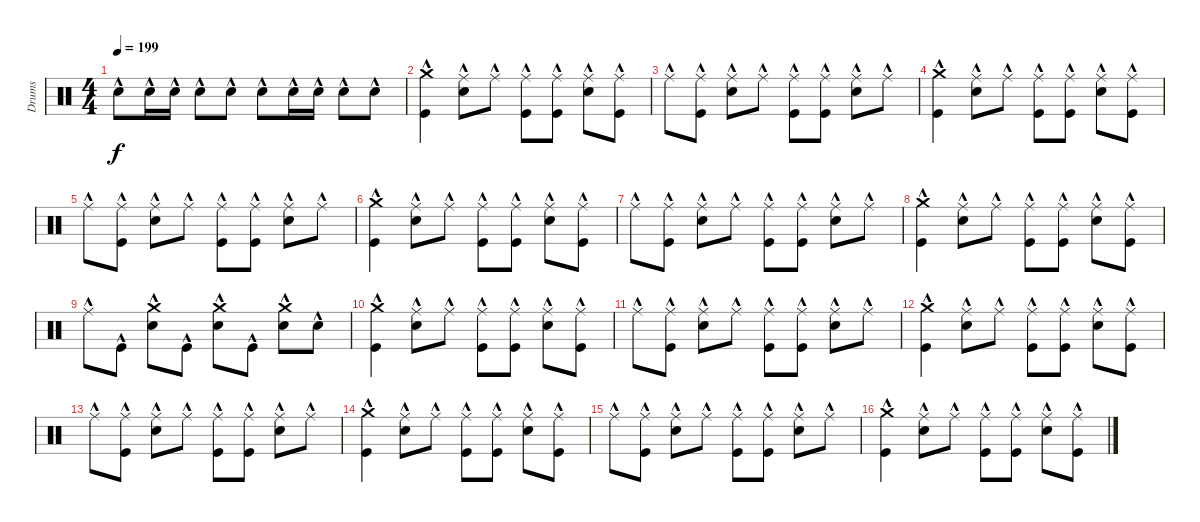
\track ("Drumkit" "Drums") {instrument percussion}
\staff {score}
\articulation defaults
\ts (4 4)
\tempo 199
\clef neutral
\ks c "Snare (hit) 2"{hac}.8{dy f} "Snare (hit) 2"{hac}.16 "Snare (hit) 2"{hac}.16 "Snare (hit) 2"{hac}.8 "Snare (hit) 2"{hac}.8 "Snare (hit) 2"{hac}.8 "Snare (hit) 2"{hac}.16 "Snare (hit) 2"{hac}.16 "Snare (hit) 2"{hac}.8 "Snare (hit) 2"{hac}.8
|
("Kick (hit)"{hac} "Crash medium (hit)"{hac}).4 ("Ride (middle)"{hac} "Snare (hit) 2"{hac}).8 "Ride (middle)"{hac}.8 ("Ride (middle)"{hac} "Kick (hit)"{hac}).8 ("Ride (middle)"{hac} "Kick (hit)"{hac}).8 ("Ride (middle)"{hac} "Snare (hit) 2"{hac}).8 ("Ride (middle)"{hac} "Kick (hit)"{hac}).8 |
"Ride (middle)"{hac}.8 ("Kick (hit)"{hac} "Ride (middle)"{hac}).8 ("Ride (middle)"{hac} "Snare (hit) 2"{hac}).8 "Ride (middle)"{hac}.8 ("Ride (middle)"{hac} "Kick (hit)"{hac}).8 ("Kick (hit)"{hac} "Ride (middle)"{hac}).8 ("Ride (middle)"{hac} "Snare (hit) 2"{hac}).8 "Ride (middle)"{hac}.8 |
("Kick (hit)"{hac} "Crash medium (hit)"{hac}).4 ("Ride (middle)"{hac} "Snare (hit) 2"{hac}).8 "Ride (middle)"{hac}.8 ("Ride (middle)"{hac} "Kick (hit)"{hac}).8 ("Ride (middle)"{hac} "Kick (hit)"{hac}).8 ("Ride (middle)"{hac} "Snare (hit) 2"{hac}).8 ("Ride (middle)"{hac} "Kick (hit)"{hac}).8 |
"Ride (middle)"{hac}.8 ("Kick (hit)"{hac} "Ride (middle)"{hac}).8 ("Ride (middle)"{hac} "Snare (hit) 2"{hac}).8 "Ride (middle)"{hac}.8 ("Ride (middle)"{hac} "Kick (hit)"{hac}).8 ("Kick (hit)"{hac} "Ride (middle)"{hac}).8 ("Ride (middle)"{hac} "Snare (hit) 2"{hac}).8 "Ride (middle)"{hac}.8 |
("Kick (hit)"{hac} "Crash medium (hit)"{hac}).4 ("Ride (middle)"{hac} "Snare (hit) 2"{hac}).8 "Ride (middle)"{hac}.8 ("Ride (middle)"{hac} "Kick (hit)"{hac}).8 ("Ride (middle)"{hac} "Kick (hit)"{hac}).8 ("Ride (middle)"{hac} "Snare (hit) 2"{hac}).8 ("Ride (middle)"{hac} "Kick (hit)"{hac}).8 |
"Ride (middle)"{hac}.8 ("Kick (hit)"{hac} "Ride (middle)"{hac}).8 ("Ride (middle)"{hac} "Snare (hit) 2"{hac}).8 "Ride (middle)"{hac}.8 ("Ride (middle)"{hac} "Kick (hit)"{hac}).8 ("Kick (hit)"{hac} "Ride (middle)"{hac}).8 ("Ride (middle)"{hac} "Snare (hit) 2"{hac}).8 "Ride (middle)"{hac}.8 |
("Kick (hit)"{hac} "Crash medium (hit)"{hac}).4 ("Ride (middle)"{hac} "Snare (hit) 2"{hac}).8 "Ride (middle)"{hac}.8 ("Ride (middle)"{hac} "Kick (hit)"{hac}).8 ("Ride (middle)"{hac} "Kick (hit)"{hac}).8 ("Ride (middle)"{hac} "Snare (hit) 2"{hac}).8 ("Ride (middle)"{hac} "Kick (hit)"{hac}).8 |
"Ride (middle)"{hac}.8 "Kick (hit)"{hac}.8 ("Crash medium (hit)"{hac} "Snare (hit) 2"{hac}).8 "Kick (hit)"{hac}.8 ("Crash medium (hit)"{hac} "Snare (hit) 2"{hac}).8 "Kick (hit)"{hac}.8 ("Crash medium (hit)"{hac} "Snare (hit) 2"{hac}).8 "Snare (hit) 2"{hac}.8 |
("Kick (hit)"{hac} "Crash medium (hit)"{hac}).4 ("Ride (middle)"{hac} "Snare (hit) 2"{hac}).8 "Ride (middle)"{hac}.8 ("Ride (middle)"{hac} "Kick (hit)"{hac}).8 ("Ride (middle)"{hac} "Kick (hit)"{hac}).8 ("Ride (middle)"{hac} "Snare (hit) 2"{hac}).8 ("Ride (middle)"{hac} "Kick (hit)"{hac}).8 |
"Ride (middle)"{hac}.8 ("Kick (hit)"{hac} "Ride (middle)"{hac}).8 ("Ride (middle)"{hac} "Snare (hit) 2"{hac}).8 "Ride (middle)"{hac}.8 ("Ride (middle)"{hac} "Kick (hit)"{hac}).8 ("Kick (hit)"{hac} "Ride (middle)"{hac}).8 ("Ride (middle)"{hac} "Snare (hit) 2"{hac}).8 "Ride (middle)"{hac}.8 |
("Kick (hit)"{hac} "Crash medium (hit)"{hac}).4 ("Ride (middle)"{hac} "Snare (hit) 2"{hac}).8 "Ride (middle)"{hac}.8 ("Ride (middle)"{hac} "Kick (hit)"{hac}).8 ("Ride (middle)"{hac} "Kick (hit)"{hac}).8 ("Ride (middle)"{hac} "Snare (hit) 2"{hac}).8 ("Ride (middle)"{hac} "Kick (hit)"{hac}).8 |
"Ride (middle)"{hac}.8 ("Kick (hit)"{hac} "Ride (middle)"{hac}).8 ("Ride (middle)"{hac} "Snare (hit) 2"{hac}).8 "Ride (middle)"{hac}.8 ("Ride (middle)"{hac} "Kick (hit)"{hac}).8 ("Kick (hit)"{hac} "Ride (middle)"{hac}).8 ("Ride (middle)"{hac} "Snare (hit) 2"{hac}).8 "Ride (middle)"{hac}.8 |
("Kick (hit)"{hac} "Crash medium (hit)"{hac}).4 ("Ride (middle)"{hac} "Snare (hit) 2"{hac}).8 "Ride (middle)"{hac}.8 ("Ride (middle)"{hac} "Kick (hit)"{hac}).8 ("Ride (middle)"{hac} "Kick (hit)"{hac}).8 ("Ride (middle)"{hac} "Snare (hit) 2"{hac}).8 ("Ride (middle)"{hac} "Kick (hit)"{hac}).8 |
"Ride (middle)"{hac}.8 ("Kick (hit)"{hac} "Ride (middle)"{hac}).8 ("Ride (middle)"{hac} "Snare (hit) 2"{hac}).8 "Ride (middle)"{hac}.8 ("Ride (middle)"{hac} "Kick (hit)"{hac}).8 ("Kick (hit)"{hac} "Ride (middle)"{hac}).8 ("Ride (middle)"{hac} "Snare (hit) 2"{hac}).8 "Ride (middle)"{hac}.8 |
("Kick (hit)"{hac} "Crash medium (hit)"{hac}).4 ("Ride (middle)"{hac} "Snare (hit) 2"{hac}).8 "Ride (middle)"{hac}.8 ("Ride (middle)"{hac} "Kick (hit)"{hac}).8 ("Ride (middle)"{hac} "Kick (hit)"{hac}).8 ("Ride (middle)"{hac} "Snare (hit) 2"{hac}).8 ("Ride (middle)"{hac} "Kick (hit)"{hac}).8
